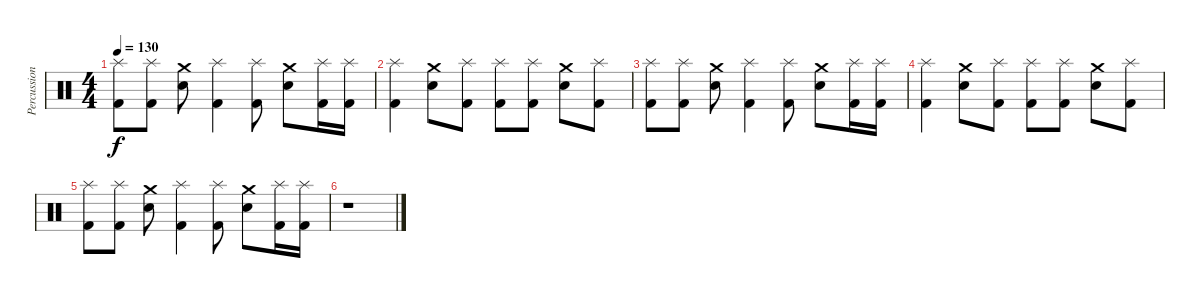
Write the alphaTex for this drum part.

\track ("Percussions" "Percussion") {instrument percussion}
\staff {score}
\articulation defaults
\ts (4 4)
\tempo 130
\clef neutral
\ks c
("Splash (hit)" "Kick (hit) 2").8{dy f} ("Splash (hit)" "Kick (hit) 2").8 ("Crash medium (hit)" "Snare (hit) 2").8 ("Splash (hit)" "Kick (hit) 2").4 ("Splash (hit)" "Kick (hit) 2").8 ("Crash medium (hit)" "Snare (hit) 2").8 ("Splash (hit)" "Kick (hit) 2").16 ("Splash (hit)" "Kick (hit) 2").16 |
("Splash (hit)" "Kick (hit) 2").4 ("Crash medium (hit)" "Snare (hit) 2").8 ("Splash (hit)" "Kick (hit) 2").8 ("Splash (hit)" "Kick (hit) 2").8 ("Splash (hit)" "Kick (hit) 2").8 ("Crash medium (hit)" "Snare (hit) 2").8 ("Splash (hit)" "Kick (hit) 2").8 |
("Splash (hit)" "Kick (hit) 2").8 ("Splash (hit)" "Kick (hit) 2").8 ("Crash medium (hit)" "Snare (hit) 2").8 ("Splash (hit)" "Kick (hit) 2").4 ("Splash (hit)" "Kick (hit) 2").8 ("Crash medium (hit)" "Snare (hit) 2").8 ("Splash (hit)" "Kick (hit) 2").16 ("Splash (hit)" "Kick (hit) 2").16 |
("Splash (hit)" "Kick (hit) 2").4 ("Crash medium (hit)" "Snare (hit) 2").8 ("Splash (hit)" "Kick (hit) 2").8 ("Splash (hit)" "Kick (hit) 2").8 ("Splash (hit)" "Kick (hit) 2").8 ("Crash medium (hit)" "Snare (hit) 2").8 ("Splash (hit)" "Kick (hit) 2").8 |
("Splash (hit)" "Kick (hit) 2").8 ("Splash (hit)" "Kick (hit) 2").8 ("Crash medium (hit)" "Snare (hit) 2").8 ("Splash (hit)" "Kick (hit) 2").4 ("Splash (hit)" "Kick (hit) 2").8 ("Crash medium (hit)" "Snare (hit) 2").8 ("Splash (hit)" "Kick (hit) 2").16 ("Splash (hit)" "Kick (hit) 2").16 |
r.1
